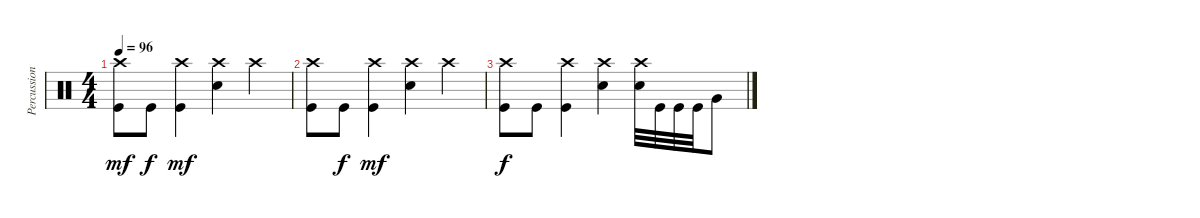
\track ("Percussion" "Percussion") {instrument percussion}
\staff {score}
\articulation defaults
\ts (4 4)
\tempo 96
\clef neutral
\ks c
("Crash high (hit)" "Kick (hit)").8{dy mf} "Kick (hit)".8{dy f} ("Crash high (hit)" "Kick (hit)").4{dy mf} ("Crash high (hit)" "Electric Snare (hit)").4 "Crash high (hit)".4 |
("Crash high (hit)" "Kick (hit)").8 "Kick (hit)".8{dy f} ("Crash high (hit)" "Kick (hit)").4{dy mf} ("Crash high (hit)" "Electric Snare (hit)").4 "Crash high (hit)".4 |
("Crash high (hit)" "Kick (hit)").8{dy f volume 6} "Kick (hit)".8 ("Crash high (hit)" "Kick (hit)").4 ("Crash high (hit)" "Electric Snare (hit)").4 ("Crash high (hit)" "Electric Snare (hit)").32 "Kick (hit)".32 "Kick (hit)".32 "Kick (hit)".32 "Very Low Tom (hit)".8
